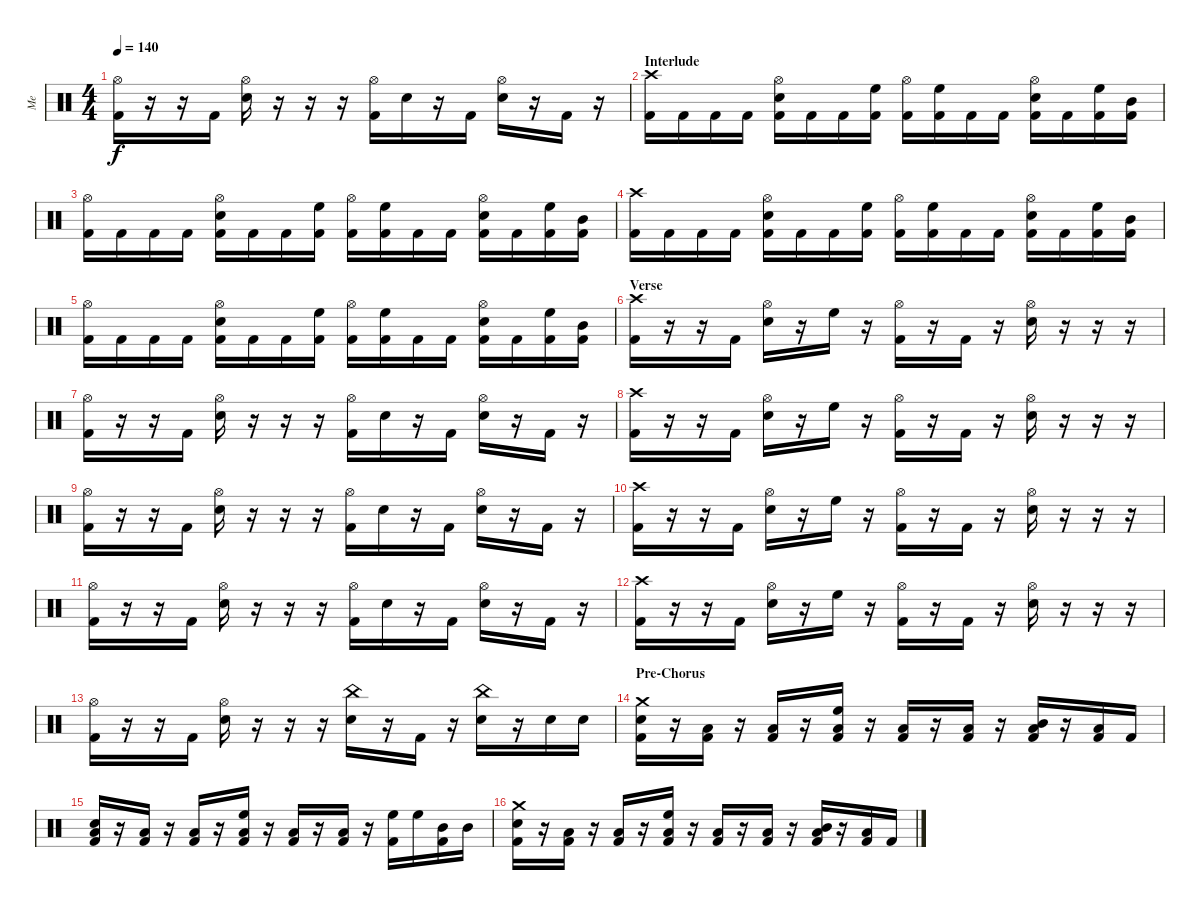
\track ("Me" "Me") {instrument percussion}
\staff {score}
\articulation defaults
\ts (4 4)
\tempo 140
\clef neutral
\ks c
("Hi-Hat (open)" "Kick (hit) 2").16{dy f} r.16 r.16 "Kick (hit) 2".16 ("Hi-Hat (open)" "Electric Snare (hit)").16 r.16 r.16 r.16 ("Hi-Hat (open)" "Kick (hit) 2").16 "Electric Snare (hit)".16 r.16 "Kick (hit) 2".16 ("Hi-Hat (open)" "Electric Snare (hit)").16 r.16 "Kick (hit) 2".16 r.16 |
\section ("" "Interlude")
("Crash high (hit)" "Kick (hit) 2").16 "Kick (hit) 2".16 "Kick (hit) 2".16 "Kick (hit) 2".16 ("Hi-Hat (open)" "Electric Snare (hit)" "Kick (hit) 2").16 "Kick (hit) 2".16 "Kick (hit) 2".16 ("High Floor Tom (hit)" "Kick (hit) 2").16 ("Hi-Hat (open)" "Kick (hit) 2").16 ("High Floor Tom (hit)" "Kick (hit) 2").16 "Kick (hit) 2".16 "Kick (hit) 2".16 ("Hi-Hat (open)" "Electric Snare (hit)" "Kick (hit) 2").16 "Kick (hit) 2".16 ("High Floor Tom (hit)" "Kick (hit) 2").16 ("Mid Tom (hit)" "Kick (hit) 2").16 |
("Hi-Hat (open)" "Kick (hit) 2").16 "Kick (hit) 2".16 "Kick (hit) 2".16 "Kick (hit) 2".16 ("Hi-Hat (open)" "Electric Snare (hit)" "Kick (hit) 2").16 "Kick (hit) 2".16 "Kick (hit) 2".16 ("High Floor Tom (hit)" "Kick (hit) 2").16 ("Hi-Hat (open)" "Kick (hit) 2").16 ("High Floor Tom (hit)" "Kick (hit) 2").16 "Kick (hit) 2".16 "Kick (hit) 2".16 ("Hi-Hat (open)" "Electric Snare (hit)" "Kick (hit) 2").16 "Kick (hit) 2".16 ("High Floor Tom (hit)" "Kick (hit) 2").16 ("Mid Tom (hit)" "Kick (hit) 2").16 |
("Crash high (hit)" "Kick (hit) 2").16 "Kick (hit) 2".16 "Kick (hit) 2".16 "Kick (hit) 2".16 ("Hi-Hat (open)" "Electric Snare (hit)" "Kick (hit) 2").16 "Kick (hit) 2".16 "Kick (hit) 2".16 ("High Floor Tom (hit)" "Kick (hit) 2").16 ("Hi-Hat (open)" "Kick (hit) 2").16 ("High Floor Tom (hit)" "Kick (hit) 2").16 "Kick (hit) 2".16 "Kick (hit) 2".16 ("Hi-Hat (open)" "Electric Snare (hit)" "Kick (hit) 2").16 "Kick (hit) 2".16 ("High Floor Tom (hit)" "Kick (hit) 2").16 ("Mid Tom (hit)" "Kick (hit) 2").16 |
("Hi-Hat (open)" "Kick (hit) 2").16 "Kick (hit) 2".16 "Kick (hit) 2".16 "Kick (hit) 2".16 ("Hi-Hat (open)" "Electric Snare (hit)" "Kick (hit) 2").16 "Kick (hit) 2".16 "Kick (hit) 2".16 ("High Floor Tom (hit)" "Kick (hit) 2").16 ("Hi-Hat (open)" "Kick (hit) 2").16 ("High Floor Tom (hit)" "Kick (hit) 2").16 "Kick (hit) 2".16 "Kick (hit) 2".16 ("Hi-Hat (open)" "Electric Snare (hit)" "Kick (hit) 2").16 "Kick (hit) 2".16 ("High Floor Tom (hit)" "Kick (hit) 2").16 ("Mid Tom (hit)" "Kick (hit) 2").16 |
\section ("" "Verse")
("Crash high (hit)" "Kick (hit) 2").16 r.16 r.16 "Kick (hit) 2".16 ("Hi-Hat (open)" "Electric Snare (hit)").16 r.16 "High Floor Tom (hit)".16 r.16 ("Hi-Hat (open)" "Kick (hit) 2").16 r.16 "Kick (hit) 2".16 r.16 ("Hi-Hat (open)" "Electric Snare (hit)").16 r.16 r.16 r.16 |
("Hi-Hat (open)" "Kick (hit) 2").16 r.16 r.16 "Kick (hit) 2".16 ("Hi-Hat (open)" "Electric Snare (hit)").16 r.16 r.16 r.16 ("Hi-Hat (open)" "Kick (hit) 2").16 "Electric Snare (hit)".16 r.16 "Kick (hit) 2".16 ("Hi-Hat (open)" "Electric Snare (hit)").16 r.16 "Kick (hit) 2".16 r.16 |
("Crash high (hit)" "Kick (hit) 2").16 r.16 r.16 "Kick (hit) 2".16 ("Hi-Hat (open)" "Electric Snare (hit)").16 r.16 "High Floor Tom (hit)".16 r.16 ("Hi-Hat (open)" "Kick (hit) 2").16 r.16 "Kick (hit) 2".16 r.16 ("Hi-Hat (open)" "Electric Snare (hit)").16 r.16 r.16 r.16 |
("Hi-Hat (open)" "Kick (hit) 2").16 r.16 r.16 "Kick (hit) 2".16 ("Hi-Hat (open)" "Electric Snare (hit)").16 r.16 r.16 r.16 ("Hi-Hat (open)" "Kick (hit) 2").16 "Electric Snare (hit)".16 r.16 "Kick (hit) 2".16 ("Hi-Hat (open)" "Electric Snare (hit)").16 r.16 "Kick (hit) 2".16 r.16 |
("Crash high (hit)" "Kick (hit) 2").16 r.16 r.16 "Kick (hit) 2".16 ("Hi-Hat (open)" "Electric Snare (hit)").16 r.16 "High Floor Tom (hit)".16 r.16 ("Hi-Hat (open)" "Kick (hit) 2").16 r.16 "Kick (hit) 2".16 r.16 ("Hi-Hat (open)" "Electric Snare (hit)").16 r.16 r.16 r.16 |
("Hi-Hat (open)" "Kick (hit) 2").16 r.16 r.16 "Kick (hit) 2".16 ("Hi-Hat (open)" "Electric Snare (hit)").16 r.16 r.16 r.16 ("Hi-Hat (open)" "Kick (hit) 2").16 "Electric Snare (hit)".16 r.16 "Kick (hit) 2".16 ("Hi-Hat (open)" "Electric Snare (hit)").16 r.16 "Kick (hit) 2".16 r.16 |
("Crash high (hit)" "Kick (hit) 2").16 r.16 r.16 "Kick (hit) 2".16 ("Hi-Hat (open)" "Electric Snare (hit)").16 r.16 "High Floor Tom (hit)".16 r.16 ("Hi-Hat (open)" "Kick (hit) 2").16 r.16 "Kick (hit) 2".16 r.16 ("Hi-Hat (open)" "Electric Snare (hit)").16 r.16 r.16 r.16 |
("Hi-Hat (open)" "Kick (hit) 2").16 r.16 r.16 "Kick (hit) 2".16 ("Hi-Hat (open)" "Electric Snare (hit)").16 r.16 r.16 r.16 ("China (hit)" "Electric Snare (hit)").16 r.16 "Kick (hit) 2".16 r.16 ("China (hit)" "Electric Snare (hit)").16 r.16 "Electric Snare (hit)".16 "Electric Snare (hit)".16 |
\section ("" "Pre-Chorus")
("Crash medium (hit)" "Electric Snare (hit)" "Kick (hit) 2").16 r.16 ("Low Tom (hit)" "Kick (hit) 2").16 r.16 ("Low Tom (hit)" "Kick (hit) 2").16 r.16 ("High Floor Tom (hit)" "Low Tom (hit)" "Kick (hit) 2").16 r.16 ("Low Tom (hit)" "Kick (hit) 2").16 r.16 ("Low Tom (hit)" "Kick (hit) 2").16 r.16 ("Mid Tom (hit)" "Low Tom (hit)" "Kick (hit) 2").16 r.16 ("Low Tom (hit)" "Kick (hit) 2").16 "Kick (hit) 2".16 |
("Electric Snare (hit)" "Low Tom (hit)" "Kick (hit) 2").16 r.16 ("Low Tom (hit)" "Kick (hit) 2").16 r.16 ("Low Tom (hit)" "Kick (hit) 2").16 r.16 ("High Floor Tom (hit)" "Low Tom (hit)" "Kick (hit) 2").16 r.16 ("Low Tom (hit)" "Kick (hit) 2").16 r.16 ("Low Tom (hit)" "Kick (hit) 2").16 r.16 ("High Floor Tom (hit)" "Kick (hit) 2").16 "High Floor Tom (hit)".16 ("Mid Tom (hit)" "Kick (hit) 2").16 "Mid Tom (hit)".16 |
("Crash medium (hit)" "Electric Snare (hit)" "Kick (hit) 2").16 r.16 ("Low Tom (hit)" "Kick (hit) 2").16 r.16 ("Low Tom (hit)" "Kick (hit) 2").16 r.16 ("High Floor Tom (hit)" "Low Tom (hit)" "Kick (hit) 2").16 r.16 ("Low Tom (hit)" "Kick (hit) 2").16 r.16 ("Low Tom (hit)" "Kick (hit) 2").16 r.16 ("Mid Tom (hit)" "Low Tom (hit)" "Kick (hit) 2").16 r.16 ("Low Tom (hit)" "Kick (hit) 2").16 "Kick (hit) 2".16
